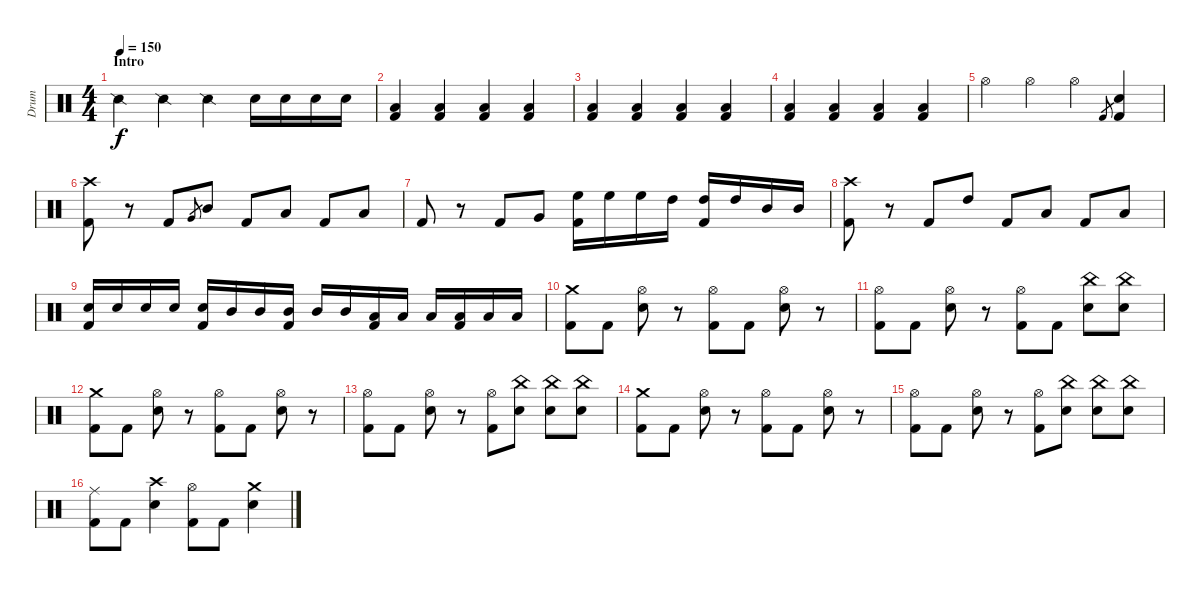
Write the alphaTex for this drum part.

\track ("Drum" "Drum") {instrument percussion}
\staff {score}
\articulation defaults
\ts (4 4)
\section ("" "Intro")
\tempo 150
\tempo 168
\tempo 150
\clef neutral
\ks c "Snare (side stick) 2".4{dy f volume 8} "Snare (side stick) 2".4 "Snare (side stick) 2".4 "Electric Snare (hit)".16 "Electric Snare (hit)".16 "Electric Snare (hit)".16 "Electric Snare (hit)".16
|
("Low Tom (hit)" "Kick (hit) 2").4 ("Low Tom (hit)" "Kick (hit) 2").4 ("Low Tom (hit)" "Kick (hit) 2").4 ("Low Tom (hit)" "Kick (hit) 2").4 |
("Low Tom (hit)" "Kick (hit) 2").4 ("Low Tom (hit)" "Kick (hit) 2").4 ("Low Tom (hit)" "Kick (hit) 2").4 ("Low Tom (hit)" "Kick (hit) 2").4 |
("Low Tom (hit)" "Kick (hit) 2").4 ("Low Tom (hit)" "Kick (hit) 2").4 ("Low Tom (hit)" "Kick (hit) 2").4 ("Low Tom (hit)" "Kick (hit) 2").4 |
"Hi-Hat (open)".4{volume 16} "Hi-Hat (open)".4 "Hi-Hat (open)".4 "Kick (hit) 2".8{gr} ("Electric Snare (hit)" "Kick (hit) 2").4 |
("Crash high (hit)" "Kick (hit) 2").8 r.8 "Kick (hit) 2".8 "Very Low Tom (hit)".8{gr} "Mid Tom (hit)".8 "Kick (hit) 2".8 "Low Tom (hit)".8 "Kick (hit) 2".8 "Low Tom (hit)".8 |
"Kick (hit) 2".8 r.8 "Kick (hit) 2".8 "Very Low Tom (hit)".8 ("High Floor Tom (hit)" "Kick (hit) 2").16 "High Floor Tom (hit)".16 "High Floor Tom (hit)".16 "High Tom (hit)".16 ("High Tom (hit)" "Kick (hit) 2").16 "High Tom (hit)".16 "Mid Tom (hit)".16 "Mid Tom (hit)".16 |
("Crash high (hit)" "Kick (hit) 2").8 r.8 "Kick (hit) 2".8 "High Tom (hit)".8 "Kick (hit) 2".8 "Low Tom (hit)".8 "Kick (hit) 2".8 "Low Tom (hit)".8 |
("Electric Snare (hit)" "Kick (hit) 2").16 "Electric Snare (hit)".16 "Electric Snare (hit)".16 "Electric Snare (hit)".16 ("Electric Snare (hit)" "Kick (hit) 2").16 "Mid Tom (hit)".16 "Mid Tom (hit)".16 ("Mid Tom (hit)" "Kick (hit) 2").16 "Mid Tom (hit)".16 "Mid Tom (hit)".16 ("Low Tom (hit)" "Kick (hit) 2").16 "Low Tom (hit)".16 "Low Tom (hit)".16 ("Low Tom (hit)" "Kick (hit) 2").16 "Low Tom (hit)".16 "Low Tom (hit)".16 |
("Kick (hit) 2" "Crash medium (hit)").8 "Kick (hit) 2".8 ("Electric Snare (hit)" "Hi-Hat (open)").8 r.8 ("Kick (hit) 2" "Hi-Hat (open)").8 "Kick (hit) 2".8 ("Electric Snare (hit)" "Hi-Hat (open)").8 r.8 |
("Kick (hit) 2" "Hi-Hat (open)").8 "Kick (hit) 2".8 ("Electric Snare (hit)" "Hi-Hat (open)").8 r.8 ("Kick (hit) 2" "Hi-Hat (open)").8 "Kick (hit) 2".8 ("Electric Snare (hit)" "China (hit)").8 ("Electric Snare (hit)" "China (hit)").8 |
("Kick (hit) 2" "Crash medium (hit)").8 "Kick (hit) 2".8 ("Electric Snare (hit)" "Hi-Hat (open)").8 r.8 ("Kick (hit) 2" "Hi-Hat (open)").8 "Kick (hit) 2".8 ("Electric Snare (hit)" "Hi-Hat (open)").8 r.8 |
("Kick (hit) 2" "Hi-Hat (open)").8 "Kick (hit) 2".8 ("Electric Snare (hit)" "Hi-Hat (open)").8 r.8 ("Kick (hit) 2" "Hi-Hat (open)").8 ("Electric Snare (hit)" "China (hit)").8 ("Electric Snare (hit)" "China (hit)").8 ("Electric Snare (hit)" "China (hit)").8 |
("Kick (hit) 2" "Crash medium (hit)").8 "Kick (hit) 2".8 ("Electric Snare (hit)" "Hi-Hat (open)").8 r.8 ("Kick (hit) 2" "Hi-Hat (open)").8 "Kick (hit) 2".8 ("Electric Snare (hit)" "Hi-Hat (open)").8 r.8 |
("Kick (hit) 2" "Hi-Hat (open)").8 "Kick (hit) 2".8 ("Electric Snare (hit)" "Hi-Hat (open)").8 r.8 ("Kick (hit) 2" "Hi-Hat (open)").8 ("Electric Snare (hit)" "China (hit)").8 ("Electric Snare (hit)" "China (hit)").8 ("Electric Snare (hit)" "China (hit)").8 |
("Kick (hit) 2" "Ride (middle)").8 "Kick (hit) 2".8 ("Electric Snare (hit)" "Crash high (hit)").4 ("Kick (hit) 2" "Hi-Hat (open)").8 "Kick (hit) 2".8 ("Electric Snare (hit)" "Crash medium (hit)").4
